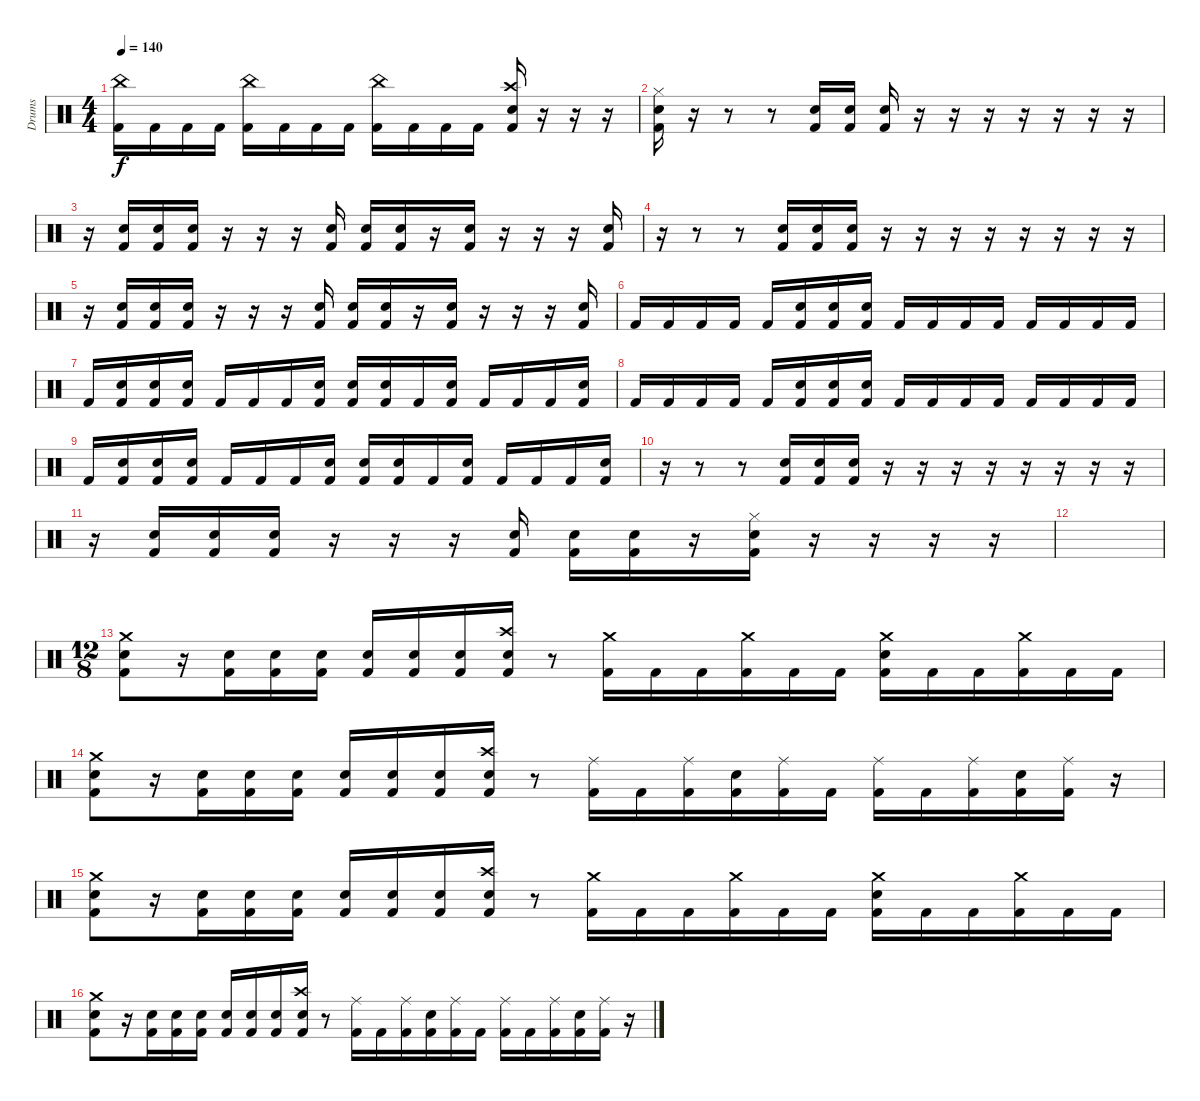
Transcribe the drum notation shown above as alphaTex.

\track ("Drums" "Drums") {instrument percussion}
\staff {score}
\articulation defaults
\ts (4 4)
\tempo 140
\clef neutral
\ks c
("China (hit)" "Kick (hit) 2").16{dy f} "Kick (hit) 2".16 "Kick (hit) 2".16 "Kick (hit) 2".16 ("China (hit)" "Kick (hit) 2").16 "Kick (hit) 2".16 "Kick (hit) 2".16 "Kick (hit) 2".16 ("China (hit)" "Kick (hit) 2").16 "Kick (hit) 2".16 "Kick (hit) 2".16 "Kick (hit) 2".16 ("Crash high (hit)" "Electric Snare (hit)" "Kick (hit) 2").16 r.16 r.16 r.16 |
("Hi-Hat (closed)" "Electric Snare (hit)" "Kick (hit) 2").16 r.16 r.8 r.8 ("Electric Snare (hit)" "Kick (hit) 2").16 ("Electric Snare (hit)" "Kick (hit) 2").16 ("Electric Snare (hit)" "Kick (hit) 2").16 r.16 r.16 r.16 r.16 r.16 r.16 r.16 |
r.16 ("Electric Snare (hit)" "Kick (hit) 2").16 ("Electric Snare (hit)" "Kick (hit) 2").16 ("Electric Snare (hit)" "Kick (hit) 2").16 r.16 r.16 r.16 ("Electric Snare (hit)" "Kick (hit) 2").16 ("Electric Snare (hit)" "Kick (hit) 2").16 ("Electric Snare (hit)" "Kick (hit) 2").16 r.16 ("Electric Snare (hit)" "Kick (hit) 2").16 r.16 r.16 r.16 ("Electric Snare (hit)" "Kick (hit) 2").16 |
r.16 r.8 r.8 ("Electric Snare (hit)" "Kick (hit) 2").16 ("Electric Snare (hit)" "Kick (hit) 2").16 ("Electric Snare (hit)" "Kick (hit) 2").16 r.16 r.16 r.16 r.16 r.16 r.16 r.16 r.16 |
r.16 ("Electric Snare (hit)" "Kick (hit) 2").16 ("Electric Snare (hit)" "Kick (hit) 2").16 ("Electric Snare (hit)" "Kick (hit) 2").16 r.16 r.16 r.16 ("Electric Snare (hit)" "Kick (hit) 2").16 ("Electric Snare (hit)" "Kick (hit) 2").16 ("Electric Snare (hit)" "Kick (hit) 2").16 r.16 ("Electric Snare (hit)" "Kick (hit) 2").16 r.16 r.16 r.16 ("Electric Snare (hit)" "Kick (hit) 2").16 |
"Kick (hit) 2".16 "Kick (hit) 2".16 "Kick (hit) 2".16 "Kick (hit) 2".16 "Kick (hit) 2".16 ("Electric Snare (hit)" "Kick (hit) 2").16 ("Electric Snare (hit)" "Kick (hit) 2").16 ("Electric Snare (hit)" "Kick (hit) 2").16 "Kick (hit) 2".16 "Kick (hit) 2".16 "Kick (hit) 2".16 "Kick (hit) 2".16 "Kick (hit) 2".16 "Kick (hit) 2".16 "Kick (hit) 2".16 "Kick (hit) 2".16 |
"Kick (hit) 2".16 ("Electric Snare (hit)" "Kick (hit) 2").16 ("Electric Snare (hit)" "Kick (hit) 2").16 ("Electric Snare (hit)" "Kick (hit) 2").16 "Kick (hit) 2".16 "Kick (hit) 2".16 "Kick (hit) 2".16 ("Electric Snare (hit)" "Kick (hit) 2").16 ("Electric Snare (hit)" "Kick (hit) 2").16 ("Electric Snare (hit)" "Kick (hit) 2").16 "Kick (hit) 2".16 ("Electric Snare (hit)" "Kick (hit) 2").16 "Kick (hit) 2".16 "Kick (hit) 2".16 "Kick (hit) 2".16 ("Electric Snare (hit)" "Kick (hit) 2").16 |
"Kick (hit) 2".16 "Kick (hit) 2".16 "Kick (hit) 2".16 "Kick (hit) 2".16 "Kick (hit) 2".16 ("Electric Snare (hit)" "Kick (hit) 2").16 ("Electric Snare (hit)" "Kick (hit) 2").16 ("Electric Snare (hit)" "Kick (hit) 2").16 "Kick (hit) 2".16 "Kick (hit) 2".16 "Kick (hit) 2".16 "Kick (hit) 2".16 "Kick (hit) 2".16 "Kick (hit) 2".16 "Kick (hit) 2".16 "Kick (hit) 2".16 |
"Kick (hit) 2".16 ("Electric Snare (hit)" "Kick (hit) 2").16 ("Electric Snare (hit)" "Kick (hit) 2").16 ("Electric Snare (hit)" "Kick (hit) 2").16 "Kick (hit) 2".16 "Kick (hit) 2".16 "Kick (hit) 2".16 ("Electric Snare (hit)" "Kick (hit) 2").16 ("Electric Snare (hit)" "Kick (hit) 2").16 ("Electric Snare (hit)" "Kick (hit) 2").16 "Kick (hit) 2".16 ("Electric Snare (hit)" "Kick (hit) 2").16 "Kick (hit) 2".16 "Kick (hit) 2".16 "Kick (hit) 2".16 ("Electric Snare (hit)" "Kick (hit) 2").16 |
r.16 r.8 r.8 ("Electric Snare (hit)" "Kick (hit) 2").16 ("Electric Snare (hit)" "Kick (hit) 2").16 ("Electric Snare (hit)" "Kick (hit) 2").16 r.16 r.16 r.16 r.16 r.16 r.16 r.16 r.16 |
r.16 ("Electric Snare (hit)" "Kick (hit) 2").16 ("Electric Snare (hit)" "Kick (hit) 2").16 ("Electric Snare (hit)" "Kick (hit) 2").16 r.16 r.16 r.16 ("Electric Snare (hit)" "Kick (hit) 2").16 ("Electric Snare (hit)" "Kick (hit) 2").16 ("Electric Snare (hit)" "Kick (hit) 2").16 r.16 ("Hi-Hat (closed)" "Electric Snare (hit)" "Kick (hit) 2").16 r.16 r.16 r.16 r.16 |
|
\ts (12 8)
("Crash medium (hit)" "Electric Snare (hit)" "Kick (hit) 2").8 r.16 ("Electric Snare (hit)" "Kick (hit) 2").16 ("Electric Snare (hit)" "Kick (hit) 2").16 ("Electric Snare (hit)" "Kick (hit) 2").16 ("Electric Snare (hit)" "Kick (hit) 2").16 ("Electric Snare (hit)" "Kick (hit) 2").16 ("Electric Snare (hit)" "Kick (hit) 2").16 ("Crash high (hit)" "Electric Snare (hit)" "Kick (hit) 2").16 r.8 ("Crash medium (hit)" "Kick (hit) 2").16 "Kick (hit) 2".16 "Kick (hit) 2".16 ("Crash medium (hit)" "Kick (hit) 2").16 "Kick (hit) 2".16 "Kick (hit) 2".16 ("Crash medium (hit)" "Electric Snare (hit)" "Kick (hit) 2").16 "Kick (hit) 2".16 "Kick (hit) 2".16 ("Crash medium (hit)" "Kick (hit) 2").16 "Kick (hit) 2".16 "Kick (hit) 2".16 |
("Crash medium (hit)" "Electric Snare (hit)" "Kick (hit) 2").8 r.16 ("Electric Snare (hit)" "Kick (hit) 2").16 ("Electric Snare (hit)" "Kick (hit) 2").16 ("Electric Snare (hit)" "Kick (hit) 2").16 ("Electric Snare (hit)" "Kick (hit) 2").16 ("Electric Snare (hit)" "Kick (hit) 2").16 ("Electric Snare (hit)" "Kick (hit) 2").16 ("Crash high (hit)" "Electric Snare (hit)" "Kick (hit) 2").16 r.8 ("Ride (middle)" "Kick (hit) 2").16 "Kick (hit) 2".16 ("Ride (middle)" "Kick (hit) 2").16 ("Electric Snare (hit)" "Kick (hit) 2").16 ("Ride (middle)" "Kick (hit) 2").16 "Kick (hit) 2".16 ("Ride (middle)" "Kick (hit) 2").16 "Kick (hit) 2".16 ("Ride (middle)" "Kick (hit) 2").16 ("Electric Snare (hit)" "Kick (hit) 2").16 ("Ride (middle)" "Kick (hit) 2").16 r.16 |
("Crash medium (hit)" "Electric Snare (hit)" "Kick (hit) 2").8 r.16 ("Electric Snare (hit)" "Kick (hit) 2").16 ("Electric Snare (hit)" "Kick (hit) 2").16 ("Electric Snare (hit)" "Kick (hit) 2").16 ("Electric Snare (hit)" "Kick (hit) 2").16 ("Electric Snare (hit)" "Kick (hit) 2").16 ("Electric Snare (hit)" "Kick (hit) 2").16 ("Crash high (hit)" "Electric Snare (hit)" "Kick (hit) 2").16 r.8 ("Crash medium (hit)" "Kick (hit) 2").16 "Kick (hit) 2".16 "Kick (hit) 2".16 ("Crash medium (hit)" "Kick (hit) 2").16 "Kick (hit) 2".16 "Kick (hit) 2".16 ("Crash medium (hit)" "Electric Snare (hit)" "Kick (hit) 2").16 "Kick (hit) 2".16 "Kick (hit) 2".16 ("Crash medium (hit)" "Kick (hit) 2").16 "Kick (hit) 2".16 "Kick (hit) 2".16 |
("Crash medium (hit)" "Electric Snare (hit)" "Kick (hit) 2").8 r.16 ("Electric Snare (hit)" "Kick (hit) 2").16 ("Electric Snare (hit)" "Kick (hit) 2").16 ("Electric Snare (hit)" "Kick (hit) 2").16 ("Electric Snare (hit)" "Kick (hit) 2").16 ("Electric Snare (hit)" "Kick (hit) 2").16 ("Electric Snare (hit)" "Kick (hit) 2").16 ("Crash high (hit)" "Electric Snare (hit)" "Kick (hit) 2").16 r.8 ("Ride (middle)" "Kick (hit) 2").16 "Kick (hit) 2".16 ("Ride (middle)" "Kick (hit) 2").16 ("Electric Snare (hit)" "Kick (hit) 2").16 ("Ride (middle)" "Kick (hit) 2").16 "Kick (hit) 2".16 ("Ride (middle)" "Kick (hit) 2").16 "Kick (hit) 2".16 ("Ride (middle)" "Kick (hit) 2").16 ("Electric Snare (hit)" "Kick (hit) 2").16 ("Ride (middle)" "Kick (hit) 2").16 r.16
